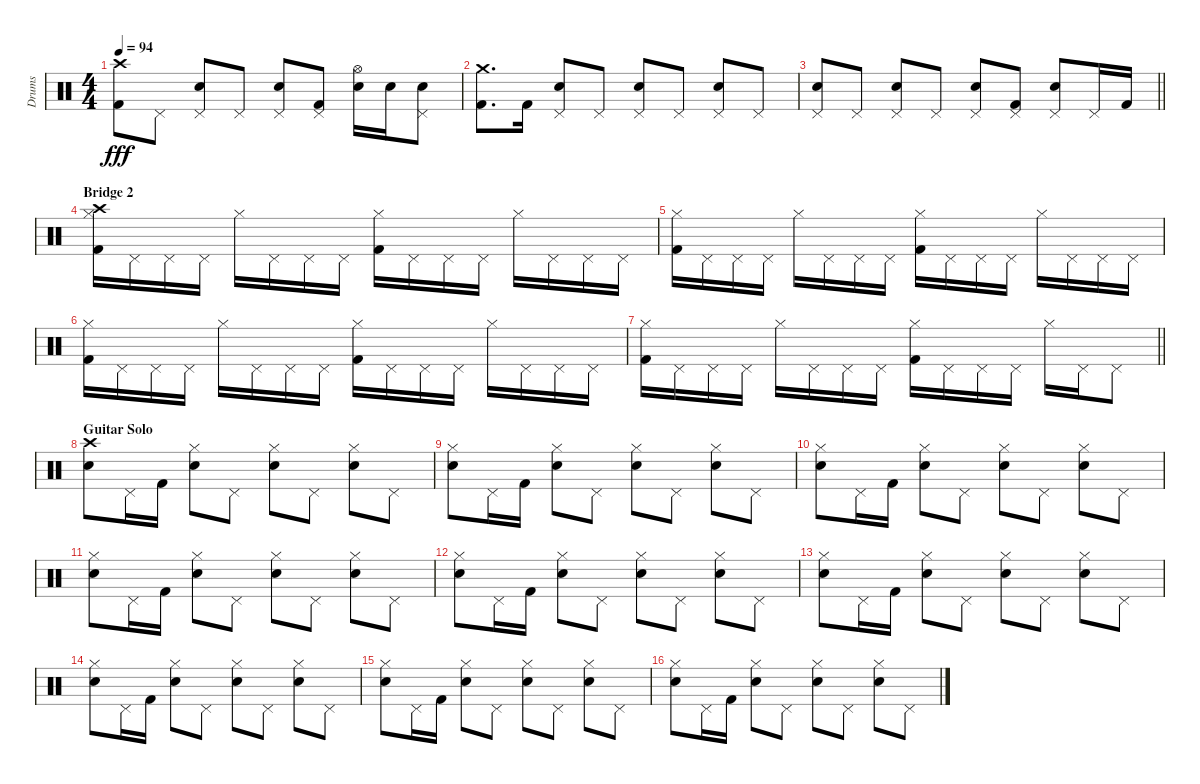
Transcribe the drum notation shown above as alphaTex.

\track ("Drums" "Drums") {instrument percussion}
\staff {score}
\articulation defaults
\ts (4 4)
\tempo 94
\clef neutral
\ks c
("Crash high (hit)" "Kick (hit) 2").8{dy fff} "Pedal Hi-Hat (hit)".8 ("Pedal Hi-Hat (hit)" "Electric Snare (hit)").8 "Pedal Hi-Hat (hit)".8 ("Pedal Hi-Hat (hit)" "Electric Snare (hit)").8 ("Pedal Hi-Hat (hit)" "Kick (hit) 2").8 ("Hi-Hat (open)" "Electric Snare (hit)").16 "Electric Snare (hit)".16 ("Pedal Hi-Hat (hit)" "Electric Snare (hit)").8 |
("Crash medium (hit)" "Kick (hit) 2").8{d} "Kick (hit) 2".16 ("Pedal Hi-Hat (hit)" "Electric Snare (hit)").8 "Pedal Hi-Hat (hit)".8 ("Pedal Hi-Hat (hit)" "Electric Snare (hit)").8 "Pedal Hi-Hat (hit)".8 ("Pedal Hi-Hat (hit)" "Electric Snare (hit)").8 "Pedal Hi-Hat (hit)".8 |
\barLineRight lightlight
("Pedal Hi-Hat (hit)" "Electric Snare (hit)").8 "Pedal Hi-Hat (hit)".8 ("Pedal Hi-Hat (hit)" "Electric Snare (hit)").8 "Pedal Hi-Hat (hit)".8 ("Pedal Hi-Hat (hit)" "Electric Snare (hit)").8 ("Pedal Hi-Hat (hit)" "Kick (hit) 2").8 ("Pedal Hi-Hat (hit)" "Electric Snare (hit)").8 "Pedal Hi-Hat (hit)".16 "Kick (hit) 2".16 |
\section ("" "Bridge 2")
("Crash high (hit)" "Hi-Hat (closed)" "Kick (hit) 2").16 "Pedal Hi-Hat (hit)".16 "Pedal Hi-Hat (hit)".16 "Pedal Hi-Hat (hit)".16 "Hi-Hat (closed)".16 "Pedal Hi-Hat (hit)".16 "Pedal Hi-Hat (hit)".16 "Pedal Hi-Hat (hit)".16 ("Hi-Hat (closed)" "Kick (hit) 2").16 "Pedal Hi-Hat (hit)".16 "Pedal Hi-Hat (hit)".16 "Pedal Hi-Hat (hit)".16 "Hi-Hat (closed)".16 "Pedal Hi-Hat (hit)".16 "Pedal Hi-Hat (hit)".16 "Pedal Hi-Hat (hit)".16 |
("Hi-Hat (closed)" "Kick (hit) 2").16 "Pedal Hi-Hat (hit)".16 "Pedal Hi-Hat (hit)".16 "Pedal Hi-Hat (hit)".16 "Hi-Hat (closed)".16 "Pedal Hi-Hat (hit)".16 "Pedal Hi-Hat (hit)".16 "Pedal Hi-Hat (hit)".16 ("Hi-Hat (closed)" "Kick (hit) 2").16 "Pedal Hi-Hat (hit)".16 "Pedal Hi-Hat (hit)".16 "Pedal Hi-Hat (hit)".16 "Hi-Hat (closed)".16 "Pedal Hi-Hat (hit)".16 "Pedal Hi-Hat (hit)".16 "Pedal Hi-Hat (hit)".16 |
("Hi-Hat (closed)" "Kick (hit) 2").16 "Pedal Hi-Hat (hit)".16 "Pedal Hi-Hat (hit)".16 "Pedal Hi-Hat (hit)".16 "Hi-Hat (closed)".16 "Pedal Hi-Hat (hit)".16 "Pedal Hi-Hat (hit)".16 "Pedal Hi-Hat (hit)".16 ("Hi-Hat (closed)" "Kick (hit) 2").16 "Pedal Hi-Hat (hit)".16 "Pedal Hi-Hat (hit)".16 "Pedal Hi-Hat (hit)".16 "Hi-Hat (closed)".16 "Pedal Hi-Hat (hit)".16 "Pedal Hi-Hat (hit)".16 "Pedal Hi-Hat (hit)".16 |
\barLineRight lightlight
("Hi-Hat (closed)" "Kick (hit) 2").16 "Pedal Hi-Hat (hit)".16 "Pedal Hi-Hat (hit)".16 "Pedal Hi-Hat (hit)".16 "Hi-Hat (closed)".16 "Pedal Hi-Hat (hit)".16 "Pedal Hi-Hat (hit)".16 "Pedal Hi-Hat (hit)".16 ("Hi-Hat (closed)" "Kick (hit) 2").16 "Pedal Hi-Hat (hit)".16 "Pedal Hi-Hat (hit)".16 "Pedal Hi-Hat (hit)".16 "Hi-Hat (closed)".16 "Pedal Hi-Hat (hit)".16 "Pedal Hi-Hat (hit)".8 |
\section ("" "Guitar Solo")
("Crash high (hit)" "Electric Snare (hit)").8 "Pedal Hi-Hat (hit)".16 "Kick (hit) 2".16 ("Hi-Hat (closed)" "Electric Snare (hit)").8 "Pedal Hi-Hat (hit)".8 ("Hi-Hat (closed)" "Electric Snare (hit)").8 "Pedal Hi-Hat (hit)".8 ("Hi-Hat (closed)" "Electric Snare (hit)").8 "Pedal Hi-Hat (hit)".8 |
("Hi-Hat (closed)" "Electric Snare (hit)").8 "Pedal Hi-Hat (hit)".16 "Kick (hit) 2".16 ("Hi-Hat (closed)" "Electric Snare (hit)").8 "Pedal Hi-Hat (hit)".8 ("Hi-Hat (closed)" "Electric Snare (hit)").8 "Pedal Hi-Hat (hit)".8 ("Hi-Hat (closed)" "Electric Snare (hit)").8 "Pedal Hi-Hat (hit)".8 |
("Hi-Hat (closed)" "Electric Snare (hit)").8 "Pedal Hi-Hat (hit)".16 "Kick (hit) 2".16 ("Hi-Hat (closed)" "Electric Snare (hit)").8 "Pedal Hi-Hat (hit)".8 ("Hi-Hat (closed)" "Electric Snare (hit)").8 "Pedal Hi-Hat (hit)".8 ("Hi-Hat (closed)" "Electric Snare (hit)").8 "Pedal Hi-Hat (hit)".8 |
("Hi-Hat (closed)" "Electric Snare (hit)").8 "Pedal Hi-Hat (hit)".16 "Kick (hit) 2".16 ("Hi-Hat (closed)" "Electric Snare (hit)").8 "Pedal Hi-Hat (hit)".8 ("Hi-Hat (closed)" "Electric Snare (hit)").8 "Pedal Hi-Hat (hit)".8 ("Hi-Hat (closed)" "Electric Snare (hit)").8 "Pedal Hi-Hat (hit)".8 |
("Hi-Hat (closed)" "Electric Snare (hit)").8 "Pedal Hi-Hat (hit)".16 "Kick (hit) 2".16 ("Hi-Hat (closed)" "Electric Snare (hit)").8 "Pedal Hi-Hat (hit)".8 ("Hi-Hat (closed)" "Electric Snare (hit)").8 "Pedal Hi-Hat (hit)".8 ("Hi-Hat (closed)" "Electric Snare (hit)").8 "Pedal Hi-Hat (hit)".8 |
("Hi-Hat (closed)" "Electric Snare (hit)").8 "Pedal Hi-Hat (hit)".16 "Kick (hit) 2".16 ("Hi-Hat (closed)" "Electric Snare (hit)").8 "Pedal Hi-Hat (hit)".8 ("Hi-Hat (closed)" "Electric Snare (hit)").8 "Pedal Hi-Hat (hit)".8 ("Hi-Hat (closed)" "Electric Snare (hit)").8 "Pedal Hi-Hat (hit)".8 |
("Hi-Hat (closed)" "Electric Snare (hit)").8 "Pedal Hi-Hat (hit)".16 "Kick (hit) 2".16 ("Hi-Hat (closed)" "Electric Snare (hit)").8 "Pedal Hi-Hat (hit)".8 ("Hi-Hat (closed)" "Electric Snare (hit)").8 "Pedal Hi-Hat (hit)".8 ("Hi-Hat (closed)" "Electric Snare (hit)").8 "Pedal Hi-Hat (hit)".8 |
("Hi-Hat (closed)" "Electric Snare (hit)").8 "Pedal Hi-Hat (hit)".16 "Kick (hit) 2".16 ("Hi-Hat (closed)" "Electric Snare (hit)").8 "Pedal Hi-Hat (hit)".8 ("Hi-Hat (closed)" "Electric Snare (hit)").8 "Pedal Hi-Hat (hit)".8 ("Hi-Hat (closed)" "Electric Snare (hit)").8 "Pedal Hi-Hat (hit)".8 |
("Hi-Hat (closed)" "Electric Snare (hit)").8 "Pedal Hi-Hat (hit)".16 "Kick (hit) 2".16 ("Hi-Hat (closed)" "Electric Snare (hit)").8 "Pedal Hi-Hat (hit)".8 ("Hi-Hat (closed)" "Electric Snare (hit)").8 "Pedal Hi-Hat (hit)".8 ("Hi-Hat (closed)" "Electric Snare (hit)").8 "Pedal Hi-Hat (hit)".8
